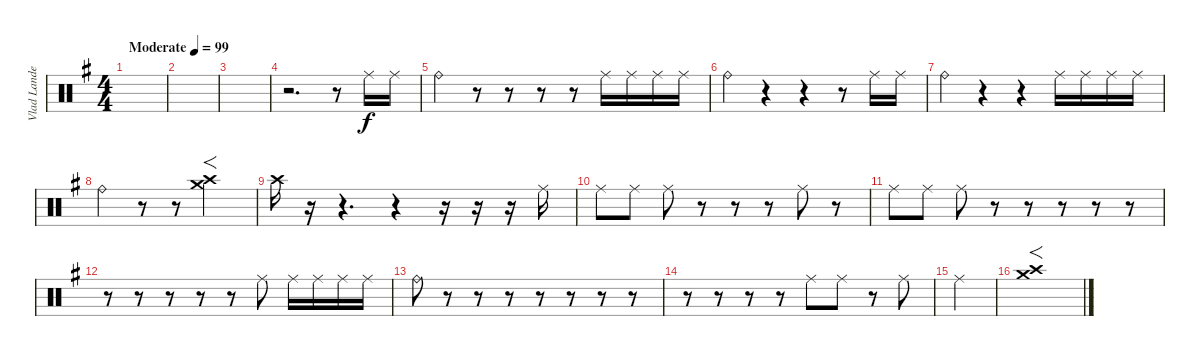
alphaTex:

\track ("Vlad Landeros" "Vlad Lande") {solo instrument percussion}
\staff {score}
\articulation defaults
\ts (4 4)
\tempo (99 "Moderate")
\clef neutral
\ks eminor
|
|
|
r.2{d} r.8 "Ride (middle)".16 "Ride (middle)".16 |
"Ride (bell)".4 r.8 r.8 r.8 r.8 "Ride (middle)".16 "Ride (middle)".16 "Ride (middle)".16 "Ride (middle)".16 |
"Ride (bell)".4 r.4 r.4 r.8 "Ride (middle)".16 "Ride (middle)".16 |
"Ride (bell)".4 r.4 r.4 "Ride (middle)".16 "Ride (middle)".16 "Ride (middle)".16 "Ride (middle)".16 |
"Ride (bell)".4 r.8 r.8 ("Crash high (hit)" "Crash medium (hit)").2{f} |
"Crash high (hit)".16 r.16 r.4{d} r.4 r.16 r.16 r.16 "Ride (middle)".16 |
"Ride (middle)".8 "Ride (middle)".8 "Ride (middle)".8 r.8 r.8 r.8 "Ride (middle)".8 r.8 |
"Ride (middle)".8 "Ride (middle)".8 "Ride (middle)".8 r.8 r.8 r.8 r.8 r.8 |
r.8 r.8 r.8 r.8 r.8 "Ride (middle)".8 "Ride (middle)".16 "Ride (middle)".16 "Ride (middle)".16 "Ride (middle)".16 |
"Ride (bell)".8 r.8 r.8 r.8 r.8 r.8 r.8 r.8 |
r.8 r.8 r.8 r.8 "Ride (middle)".8 "Ride (middle)".8 r.8 "Ride (middle)".8 |
"Ride (middle)".4 |
("Crash high (hit)" "Crash medium (hit)").1{f}
